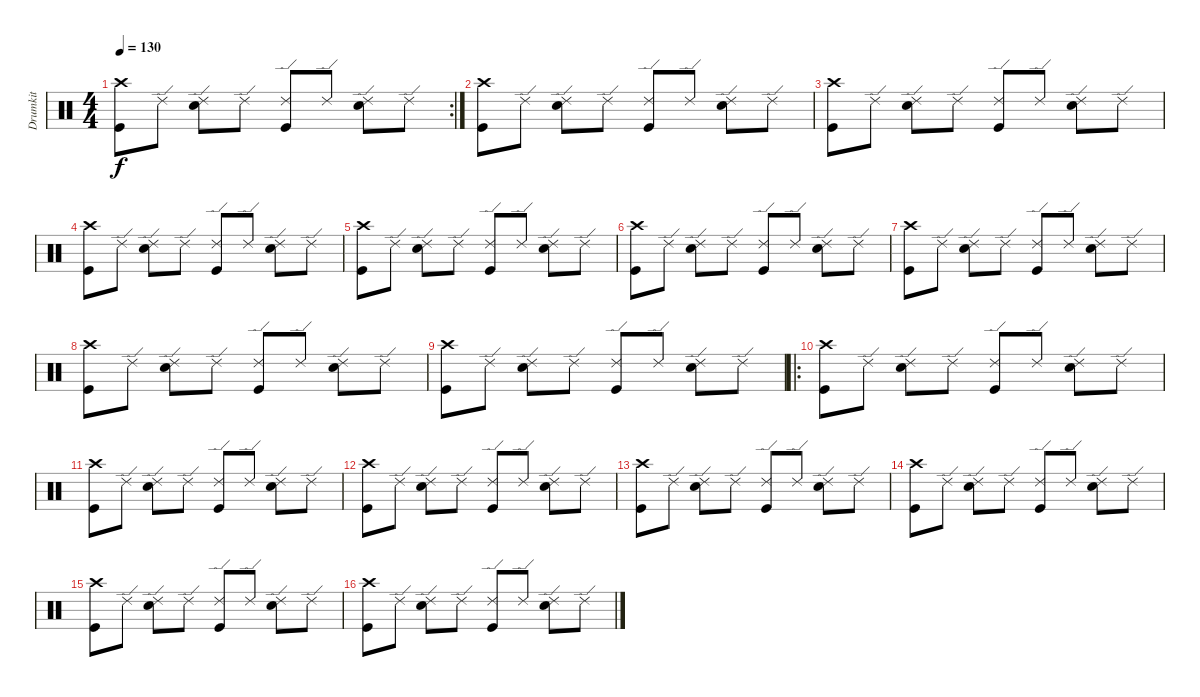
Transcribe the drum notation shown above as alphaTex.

\track ("Drumkit" "Drumkit") {instrument percussion}
\staff {score}
\articulation defaults
\rc 2
\ts (4 4)
\tempo 130
\clef neutral
\ks c
("Crash high (hit)" "Kick (hit)").8{dy f} "Ride (edge) 2".8 ("Ride (edge) 2" "Electric Snare (hit)").8 "Ride (edge) 2".8 ("Ride (edge) 2" "Kick (hit)").8 "Ride (edge) 2".8 ("Ride (edge) 2" "Electric Snare (hit)").8 "Ride (edge) 2".8 |
("Crash high (hit)" "Kick (hit)").8 "Ride (edge) 2".8 ("Ride (edge) 2" "Electric Snare (hit)").8 "Ride (edge) 2".8 ("Ride (edge) 2" "Kick (hit)").8 "Ride (edge) 2".8 ("Ride (edge) 2" "Electric Snare (hit)").8 "Ride (edge) 2".8 |
("Crash high (hit)" "Kick (hit)").8 "Ride (edge) 2".8 ("Ride (edge) 2" "Electric Snare (hit)").8 "Ride (edge) 2".8 ("Ride (edge) 2" "Kick (hit)").8 "Ride (edge) 2".8 ("Ride (edge) 2" "Electric Snare (hit)").8 "Ride (edge) 2".8 |
("Crash high (hit)" "Kick (hit)").8 "Ride (edge) 2".8 ("Ride (edge) 2" "Electric Snare (hit)").8 "Ride (edge) 2".8 ("Ride (edge) 2" "Kick (hit)").8 "Ride (edge) 2".8 ("Ride (edge) 2" "Electric Snare (hit)").8 "Ride (edge) 2".8 |
("Crash high (hit)" "Kick (hit)").8 "Ride (edge) 2".8 ("Ride (edge) 2" "Electric Snare (hit)").8 "Ride (edge) 2".8 ("Ride (edge) 2" "Kick (hit)").8 "Ride (edge) 2".8 ("Ride (edge) 2" "Electric Snare (hit)").8 "Ride (edge) 2".8 |
("Crash high (hit)" "Kick (hit)").8 "Ride (edge) 2".8 ("Ride (edge) 2" "Electric Snare (hit)").8 "Ride (edge) 2".8 ("Ride (edge) 2" "Kick (hit)").8 "Ride (edge) 2".8 ("Ride (edge) 2" "Electric Snare (hit)").8 "Ride (edge) 2".8 |
("Crash high (hit)" "Kick (hit)").8 "Ride (edge) 2".8 ("Ride (edge) 2" "Electric Snare (hit)").8 "Ride (edge) 2".8 ("Ride (edge) 2" "Kick (hit)").8 "Ride (edge) 2".8 ("Ride (edge) 2" "Electric Snare (hit)").8 "Ride (edge) 2".8 |
("Crash high (hit)" "Kick (hit)").8 "Ride (edge) 2".8 ("Ride (edge) 2" "Electric Snare (hit)").8 "Ride (edge) 2".8 ("Ride (edge) 2" "Kick (hit)").8 "Ride (edge) 2".8 ("Ride (edge) 2" "Electric Snare (hit)").8 "Ride (edge) 2".8 |
("Crash high (hit)" "Kick (hit)").8 "Ride (edge) 2".8 ("Ride (edge) 2" "Electric Snare (hit)").8 "Ride (edge) 2".8 ("Ride (edge) 2" "Kick (hit)").8 "Ride (edge) 2".8 ("Ride (edge) 2" "Electric Snare (hit)").8 "Ride (edge) 2".8 |
\ro
("Crash high (hit)" "Kick (hit)").8 "Ride (edge) 2".8 ("Ride (edge) 2" "Electric Snare (hit)").8 "Ride (edge) 2".8 ("Ride (edge) 2" "Kick (hit)").8 "Ride (edge) 2".8 ("Ride (edge) 2" "Electric Snare (hit)").8 "Ride (edge) 2".8 |
("Crash high (hit)" "Kick (hit)").8 "Ride (edge) 2".8 ("Ride (edge) 2" "Electric Snare (hit)").8 "Ride (edge) 2".8 ("Ride (edge) 2" "Kick (hit)").8 "Ride (edge) 2".8 ("Ride (edge) 2" "Electric Snare (hit)").8 "Ride (edge) 2".8 |
("Crash high (hit)" "Kick (hit)").8 "Ride (edge) 2".8 ("Ride (edge) 2" "Electric Snare (hit)").8 "Ride (edge) 2".8 ("Ride (edge) 2" "Kick (hit)").8 "Ride (edge) 2".8 ("Ride (edge) 2" "Electric Snare (hit)").8 "Ride (edge) 2".8 |
("Crash high (hit)" "Kick (hit)").8 "Ride (edge) 2".8 ("Ride (edge) 2" "Electric Snare (hit)").8 "Ride (edge) 2".8 ("Ride (edge) 2" "Kick (hit)").8 "Ride (edge) 2".8 ("Ride (edge) 2" "Electric Snare (hit)").8 "Ride (edge) 2".8 |
("Crash high (hit)" "Kick (hit)").8 "Ride (edge) 2".8 ("Ride (edge) 2" "Electric Snare (hit)").8 "Ride (edge) 2".8 ("Ride (edge) 2" "Kick (hit)").8 "Ride (edge) 2".8 ("Ride (edge) 2" "Electric Snare (hit)").8 "Ride (edge) 2".8 |
("Crash high (hit)" "Kick (hit)").8 "Ride (edge) 2".8 ("Ride (edge) 2" "Electric Snare (hit)").8 "Ride (edge) 2".8 ("Ride (edge) 2" "Kick (hit)").8 "Ride (edge) 2".8 ("Ride (edge) 2" "Electric Snare (hit)").8 "Ride (edge) 2".8 |
("Crash high (hit)" "Kick (hit)").8 "Ride (edge) 2".8 ("Ride (edge) 2" "Electric Snare (hit)").8 "Ride (edge) 2".8 ("Ride (edge) 2" "Kick (hit)").8 "Ride (edge) 2".8 ("Ride (edge) 2" "Electric Snare (hit)").8 "Ride (edge) 2".8
